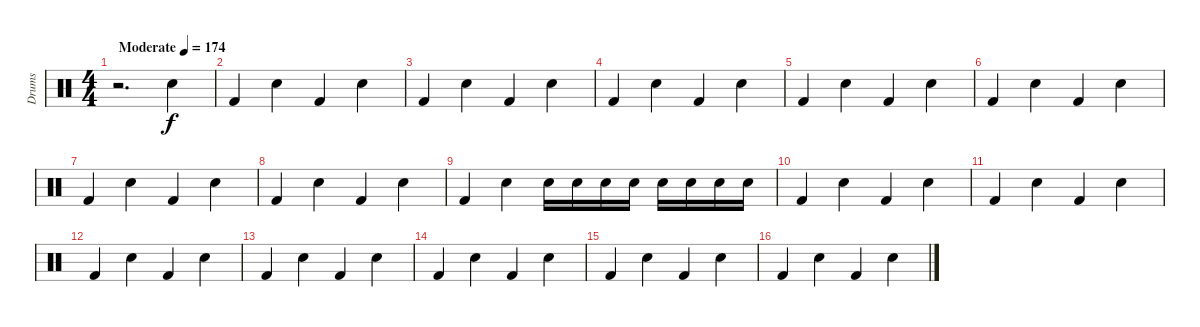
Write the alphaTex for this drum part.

\track ("Drums" "Drums") {instrument percussion}
\staff {score}
\articulation defaults
\ts (4 4)
\tempo (174 "Moderate")
\clef neutral
\ks c
r.2{d dy f} "Electric Snare (hit)".4 |
"Kick (hit) 2".4 "Electric Snare (hit)".4 "Kick (hit) 2".4 "Electric Snare (hit)".4 |
"Kick (hit) 2".4 "Electric Snare (hit)".4 "Kick (hit) 2".4 "Electric Snare (hit)".4 |
"Kick (hit) 2".4 "Electric Snare (hit)".4 "Kick (hit) 2".4 "Electric Snare (hit)".4 |
"Kick (hit) 2".4 "Electric Snare (hit)".4 "Kick (hit) 2".4 "Electric Snare (hit)".4 |
"Kick (hit) 2".4 "Electric Snare (hit)".4 "Kick (hit) 2".4 "Electric Snare (hit)".4 |
"Kick (hit) 2".4 "Electric Snare (hit)".4 "Kick (hit) 2".4 "Electric Snare (hit)".4 |
"Kick (hit) 2".4 "Electric Snare (hit)".4 "Kick (hit) 2".4 "Electric Snare (hit)".4 |
"Kick (hit) 2".4 "Electric Snare (hit)".4 "Electric Snare (hit)".16 "Electric Snare (hit)".16 "Electric Snare (hit)".16 "Electric Snare (hit)".16 "Electric Snare (hit)".16 "Electric Snare (hit)".16 "Electric Snare (hit)".16 "Electric Snare (hit)".16 |
"Kick (hit) 2".4 "Electric Snare (hit)".4 "Kick (hit) 2".4 "Electric Snare (hit)".4 |
"Kick (hit) 2".4 "Electric Snare (hit)".4 "Kick (hit) 2".4 "Electric Snare (hit)".4 |
"Kick (hit) 2".4 "Electric Snare (hit)".4 "Kick (hit) 2".4 "Electric Snare (hit)".4 |
"Kick (hit) 2".4 "Electric Snare (hit)".4 "Kick (hit) 2".4 "Electric Snare (hit)".4 |
"Kick (hit) 2".4 "Electric Snare (hit)".4 "Kick (hit) 2".4 "Electric Snare (hit)".4 |
"Kick (hit) 2".4 "Electric Snare (hit)".4 "Kick (hit) 2".4 "Electric Snare (hit)".4 |
"Kick (hit) 2".4 "Electric Snare (hit)".4 "Kick (hit) 2".4 "Electric Snare (hit)".4
